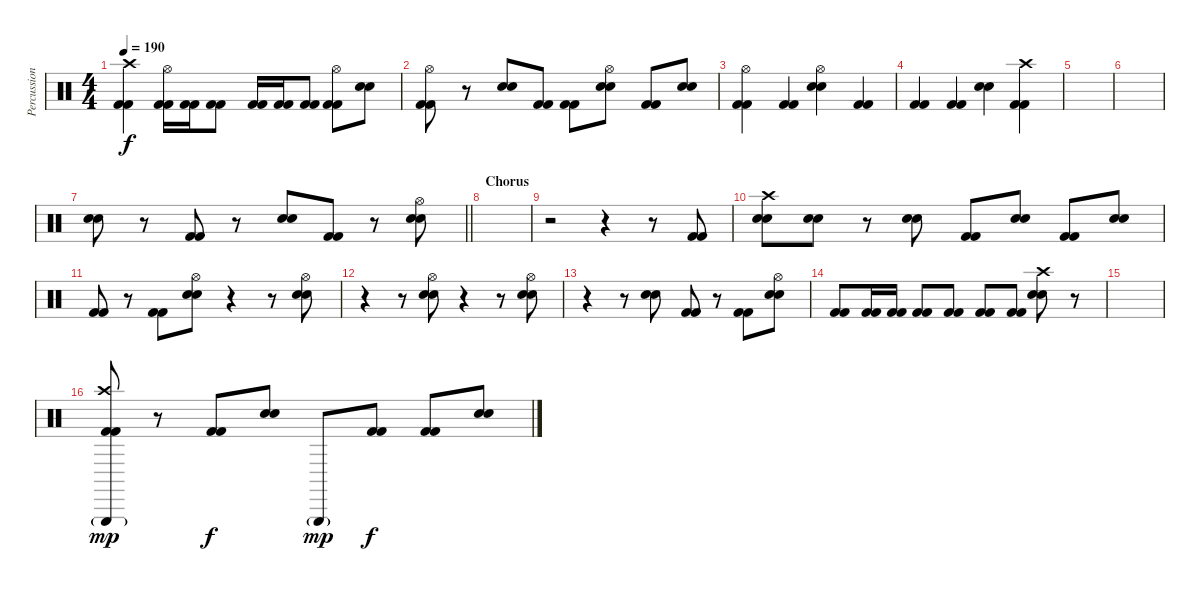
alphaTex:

\track ("Percussions" "Percussion") {instrument percussion}
\staff {score}
\articulation defaults
\ts (4 4)
\tempo 190
\clef neutral
\ks c
("Kick (hit) 2" "Kick (hit) 2" "Crash high (hit)").4{dy f} ("Kick (hit) 2" "Kick (hit) 2" "Hi-Hat (open)").16 ("Kick (hit) 2" "Kick (hit) 2").16 ("Kick (hit) 2" "Kick (hit) 2").8 ("Kick (hit) 2" "Kick (hit) 2").16 ("Kick (hit) 2" "Kick (hit) 2").16 ("Kick (hit) 2" "Kick (hit) 2").8 ("Kick (hit) 2" "Kick (hit) 2" "Hi-Hat (open)").8 ("Electric Snare (hit)" "Electric Snare (hit)").8 |
("Kick (hit) 2" "Kick (hit) 2" "Hi-Hat (open)").8 r.8 ("Electric Snare (hit)" "Electric Snare (hit)").8 ("Kick (hit) 2" "Kick (hit) 2").8 ("Kick (hit) 2" "Kick (hit) 2").8 ("Electric Snare (hit)" "Electric Snare (hit)" "Hi-Hat (open)").8 ("Kick (hit) 2" "Kick (hit) 2").8 ("Electric Snare (hit)" "Electric Snare (hit)").8 |
("Kick (hit) 2" "Kick (hit) 2" "Hi-Hat (open)").4 ("Kick (hit) 2" "Kick (hit) 2").4 ("Electric Snare (hit)" "Electric Snare (hit)" "Hi-Hat (open)").4 ("Kick (hit) 2" "Kick (hit) 2").4 |
("Kick (hit) 2" "Kick (hit) 2").4 ("Kick (hit) 2" "Kick (hit) 2").4 ("Electric Snare (hit)" "Electric Snare (hit)").4 ("Kick (hit) 2" "Kick (hit) 2" "Crash high (hit)").4 |
|
|
\barLineRight lightlight
("Snare (hit) 2" "Snare (hit) 2").8 r.8 ("Kick (hit) 2" "Kick (hit) 2").8 r.8 ("Snare (hit) 2" "Snare (hit) 2").8 ("Kick (hit) 2" "Kick (hit) 2").8 r.8 ("Snare (hit) 2" "Snare (hit) 2" "Hi-Hat (open)").8 |
\section ("" "Chorus")
|
r.2 r.4 r.8 ("Kick (hit) 2" "Kick (hit) 2").8 |
("Snare (hit) 2" "Snare (hit) 2" "Crash high (hit)").8 ("Snare (hit) 2" "Snare (hit) 2").8 r.8 ("Snare (hit) 2" "Snare (hit) 2").8 ("Kick (hit) 2" "Kick (hit) 2").8 ("Snare (hit) 2" "Snare (hit) 2").8 ("Kick (hit) 2" "Kick (hit) 2").8 ("Snare (hit) 2" "Snare (hit) 2").8 |
("Kick (hit) 2" "Kick (hit) 2").8 r.8 ("Kick (hit) 2" "Kick (hit) 2").8 ("Snare (hit) 2" "Snare (hit) 2" "Hi-Hat (open)").8 r.4 r.8 ("Snare (hit) 2" "Snare (hit) 2" "Hi-Hat (open)").8 |
r.4 r.8 ("Snare (hit) 2" "Snare (hit) 2" "Hi-Hat (open)").8 r.4 r.8 ("Snare (hit) 2" "Snare (hit) 2" "Hi-Hat (open)").8 |
r.4 r.8 ("Snare (hit) 2" "Snare (hit) 2").8 ("Kick (hit) 2" "Kick (hit) 2").8 r.8 ("Kick (hit) 2" "Kick (hit) 2").8 ("Snare (hit) 2" "Snare (hit) 2" "Hi-Hat (open)").8 |
("Kick (hit) 2" "Kick (hit) 2").8 ("Kick (hit) 2" "Kick (hit) 2").16 ("Kick (hit) 2" "Kick (hit) 2").16 ("Kick (hit) 2" "Kick (hit) 2").8 ("Kick (hit) 2" "Kick (hit) 2").8 ("Kick (hit) 2" "Kick (hit) 2").8 ("Kick (hit) 2" "Kick (hit) 2").8 ("Snare (hit) 2" "Snare (hit) 2" "Crash high (hit)").8 r.8 |
|
("Kick (hit) 2" "Kick (hit) 2" "Crash high (hit)" "Triangle (hit)"{g}).8{dy mp} r.8 ("Kick (hit) 2" "Kick (hit) 2").8{dy f} ("Snare (hit) 2" "Snare (hit) 2").8 "Triangle (hit)"{g}.8{dy mp} ("Kick (hit) 2" "Kick (hit) 2").8{dy f} ("Kick (hit) 2" "Kick (hit) 2").8 ("Snare (hit) 2" "Snare (hit) 2").8
